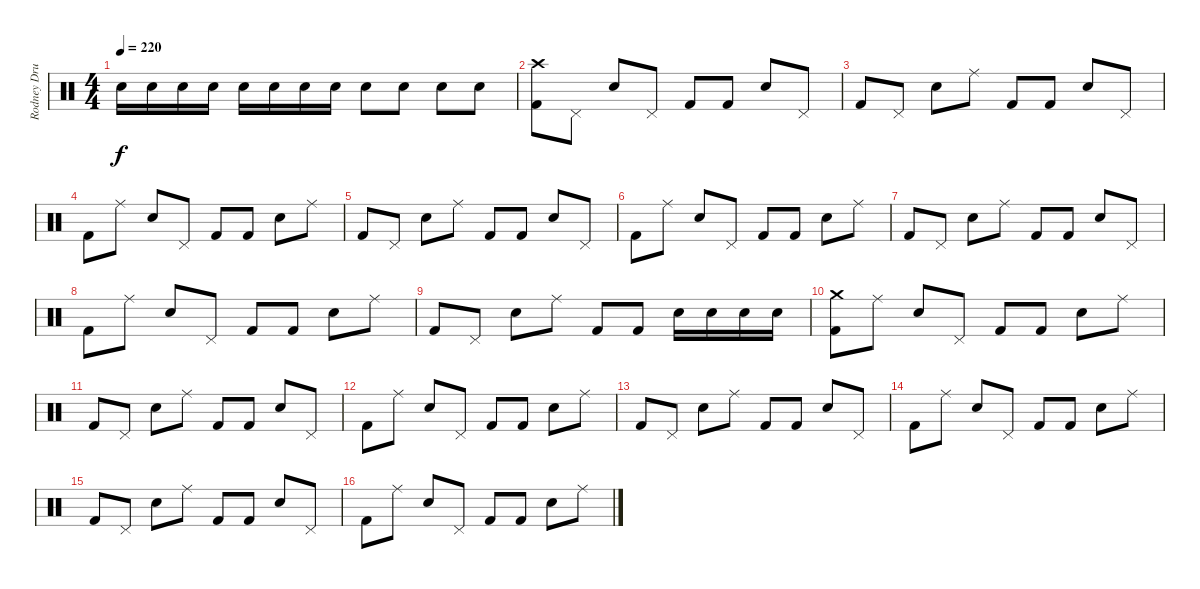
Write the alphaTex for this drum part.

\track ("Rodney Drums" "Rodney Dru") {instrument percussion}
\staff {score}
\articulation defaults
\ts (4 4)
\tempo 220
\clef neutral
\ks c "Electric Snare (hit)".16{dy f} "Electric Snare (hit)".16 "Electric Snare (hit)".16 "Electric Snare (hit)".16 "Electric Snare (hit)".16 "Electric Snare (hit)".16 "Electric Snare (hit)".16 "Electric Snare (hit)".16 "Electric Snare (hit)".8 "Electric Snare (hit)".8 "Electric Snare (hit)".8 "Electric Snare (hit)".8
|
("Crash high (hit)" "Kick (hit) 2").8 "Pedal Hi-Hat (hit)".8 "Electric Snare (hit)".8 "Pedal Hi-Hat (hit)".8 "Kick (hit) 2".8 "Kick (hit) 2".8 "Electric Snare (hit)".8 "Pedal Hi-Hat (hit)".8 |
"Kick (hit) 2".8 "Pedal Hi-Hat (hit)".8 "Electric Snare (hit)".8 "Ride (middle)".8 "Kick (hit) 2".8 "Kick (hit) 2".8 "Electric Snare (hit)".8 "Pedal Hi-Hat (hit)".8 |
"Kick (hit) 2".8 "Ride (middle)".8 "Electric Snare (hit)".8 "Pedal Hi-Hat (hit)".8 "Kick (hit) 2".8 "Kick (hit) 2".8 "Electric Snare (hit)".8 "Ride (middle)".8 |
"Kick (hit) 2".8 "Pedal Hi-Hat (hit)".8 "Electric Snare (hit)".8 "Ride (middle)".8 "Kick (hit) 2".8 "Kick (hit) 2".8 "Electric Snare (hit)".8 "Pedal Hi-Hat (hit)".8 |
"Kick (hit) 2".8 "Ride (middle)".8 "Electric Snare (hit)".8 "Pedal Hi-Hat (hit)".8 "Kick (hit) 2".8 "Kick (hit) 2".8 "Electric Snare (hit)".8 "Ride (middle)".8 |
"Kick (hit) 2".8 "Pedal Hi-Hat (hit)".8 "Electric Snare (hit)".8 "Ride (middle)".8 "Kick (hit) 2".8 "Kick (hit) 2".8 "Electric Snare (hit)".8 "Pedal Hi-Hat (hit)".8 |
"Kick (hit) 2".8 "Ride (middle)".8 "Electric Snare (hit)".8 "Pedal Hi-Hat (hit)".8 "Kick (hit) 2".8 "Kick (hit) 2".8 "Electric Snare (hit)".8 "Ride (middle)".8 |
"Kick (hit) 2".8 "Pedal Hi-Hat (hit)".8 "Electric Snare (hit)".8 "Ride (middle)".8 "Kick (hit) 2".8 "Kick (hit) 2".8 "Electric Snare (hit)".16 "Electric Snare (hit)".16 "Electric Snare (hit)".16 "Electric Snare (hit)".16 |
("Crash medium (hit)" "Kick (hit) 2").8 "Ride (middle)".8 "Electric Snare (hit)".8 "Pedal Hi-Hat (hit)".8 "Kick (hit) 2".8 "Kick (hit) 2".8 "Electric Snare (hit)".8 "Ride (middle)".8 |
"Kick (hit) 2".8 "Pedal Hi-Hat (hit)".8 "Electric Snare (hit)".8 "Ride (middle)".8 "Kick (hit) 2".8 "Kick (hit) 2".8 "Electric Snare (hit)".8 "Pedal Hi-Hat (hit)".8 |
"Kick (hit) 2".8 "Ride (middle)".8 "Electric Snare (hit)".8 "Pedal Hi-Hat (hit)".8 "Kick (hit) 2".8 "Kick (hit) 2".8 "Electric Snare (hit)".8 "Ride (middle)".8 |
"Kick (hit) 2".8 "Pedal Hi-Hat (hit)".8 "Electric Snare (hit)".8 "Ride (middle)".8 "Kick (hit) 2".8 "Kick (hit) 2".8 "Electric Snare (hit)".8 "Pedal Hi-Hat (hit)".8 |
"Kick (hit) 2".8 "Ride (middle)".8 "Electric Snare (hit)".8 "Pedal Hi-Hat (hit)".8 "Kick (hit) 2".8 "Kick (hit) 2".8 "Electric Snare (hit)".8 "Ride (middle)".8 |
"Kick (hit) 2".8 "Pedal Hi-Hat (hit)".8 "Electric Snare (hit)".8 "Ride (middle)".8 "Kick (hit) 2".8 "Kick (hit) 2".8 "Electric Snare (hit)".8 "Pedal Hi-Hat (hit)".8 |
"Kick (hit) 2".8 "Ride (middle)".8 "Electric Snare (hit)".8 "Pedal Hi-Hat (hit)".8 "Kick (hit) 2".8 "Kick (hit) 2".8 "Electric Snare (hit)".8 "Ride (middle)".8
